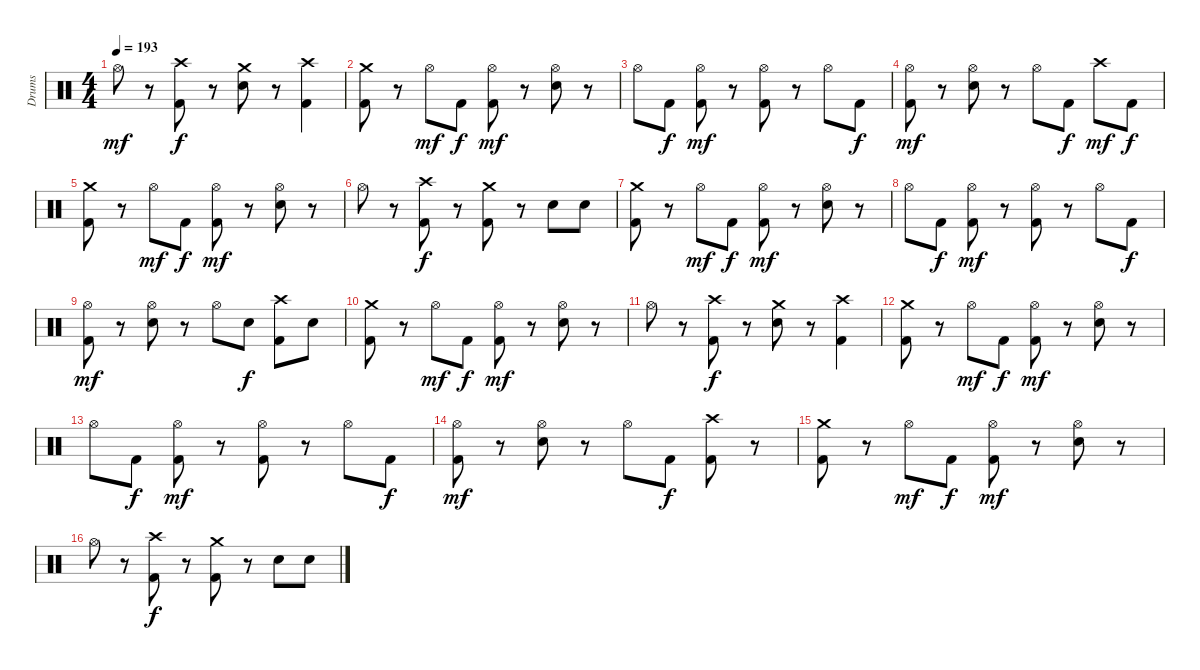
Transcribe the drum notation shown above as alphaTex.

\track ("Drums" "Drums") {instrument percussion}
\staff {score}
\articulation defaults
\ts (4 4)
\tempo 193
\clef neutral
\ks c "Hi-Hat (open)".8{dy mf}
r.8 ("Crash high (hit)" "Kick (hit) 2").8{dy f} r.8 ("Crash medium (hit)" "Snare (hit) 2").8 r.8 ("Crash high (hit)" "Kick (hit) 2").4 |
("Crash medium (hit)" "Kick (hit) 2").8 r.8 "Hi-Hat (open)".8{dy mf} "Kick (hit) 2".8{dy f} ("Hi-Hat (open)" "Kick (hit) 2").8{dy mf} r.8 ("Hi-Hat (open)" "Snare (hit) 2").8 r.8 |
"Hi-Hat (open)".8 "Kick (hit) 2".8{dy f} ("Hi-Hat (open)" "Kick (hit) 2").8{dy mf} r.8 ("Hi-Hat (open)" "Kick (hit) 2").8 r.8 "Hi-Hat (open)".8 "Kick (hit) 2".8{dy f} |
("Hi-Hat (open)" "Kick (hit) 2").8{dy mf} r.8 ("Hi-Hat (open)" "Snare (hit) 2").8 r.8 "Hi-Hat (open)".8 "Kick (hit) 2".8{dy f} "Crash high (hit)".8{dy mf} "Kick (hit) 2".8{dy f} |
("Crash medium (hit)" "Kick (hit) 2").8 r.8 "Hi-Hat (open)".8{dy mf} "Kick (hit) 2".8{dy f} ("Hi-Hat (open)" "Kick (hit) 2").8{dy mf} r.8 ("Hi-Hat (open)" "Snare (hit) 2").8 r.8 |
"Hi-Hat (open)".8 r.8 ("Crash high (hit)" "Kick (hit) 2").8{dy f} r.8 ("Crash medium (hit)" "Kick (hit) 2").8 r.8 "Snare (hit) 2".8 "Snare (hit) 2".8 |
("Crash medium (hit)" "Kick (hit) 2").8 r.8 "Hi-Hat (open)".8{dy mf} "Kick (hit) 2".8{dy f} ("Hi-Hat (open)" "Kick (hit) 2").8{dy mf} r.8 ("Hi-Hat (open)" "Snare (hit) 2").8 r.8 |
"Hi-Hat (open)".8 "Kick (hit) 2".8{dy f} ("Hi-Hat (open)" "Kick (hit) 2").8{dy mf} r.8 ("Hi-Hat (open)" "Kick (hit) 2").8 r.8 "Hi-Hat (open)".8 "Kick (hit) 2".8{dy f} |
("Hi-Hat (open)" "Kick (hit) 2").8{dy mf} r.8 ("Hi-Hat (open)" "Snare (hit) 2").8 r.8 "Hi-Hat (open)".8 "Snare (hit) 2".8{dy f} ("Crash high (hit)" "Kick (hit) 2").8 "Snare (hit) 2".8 |
("Crash medium (hit)" "Kick (hit) 2").8 r.8 "Hi-Hat (open)".8{dy mf} "Kick (hit) 2".8{dy f} ("Hi-Hat (open)" "Kick (hit) 2").8{dy mf} r.8 ("Hi-Hat (open)" "Snare (hit) 2").8 r.8 |
"Hi-Hat (open)".8 r.8 ("Crash high (hit)" "Kick (hit) 2").8{dy f} r.8 ("Crash medium (hit)" "Snare (hit) 2").8 r.8 ("Crash high (hit)" "Kick (hit) 2").4 |
("Crash medium (hit)" "Kick (hit) 2").8 r.8 "Hi-Hat (open)".8{dy mf} "Kick (hit) 2".8{dy f} ("Hi-Hat (open)" "Kick (hit) 2").8{dy mf} r.8 ("Hi-Hat (open)" "Snare (hit) 2").8 r.8 |
"Hi-Hat (open)".8 "Kick (hit) 2".8{dy f} ("Hi-Hat (open)" "Kick (hit) 2").8{dy mf} r.8 ("Hi-Hat (open)" "Kick (hit) 2").8 r.8 "Hi-Hat (open)".8 "Kick (hit) 2".8{dy f} |
("Hi-Hat (open)" "Kick (hit) 2").8{dy mf} r.8 ("Hi-Hat (open)" "Snare (hit) 2").8 r.8 "Hi-Hat (open)".8 "Kick (hit) 2".8{dy f} ("Crash high (hit)" "Kick (hit) 2").8 r.8 |
("Crash medium (hit)" "Kick (hit) 2").8 r.8 "Hi-Hat (open)".8{dy mf} "Kick (hit) 2".8{dy f} ("Hi-Hat (open)" "Kick (hit) 2").8{dy mf} r.8 ("Hi-Hat (open)" "Snare (hit) 2").8 r.8 |
"Hi-Hat (open)".8 r.8 ("Crash high (hit)" "Kick (hit) 2").8{dy f} r.8 ("Crash medium (hit)" "Kick (hit) 2").8 r.8 "Snare (hit) 2".8 "Snare (hit) 2".8
